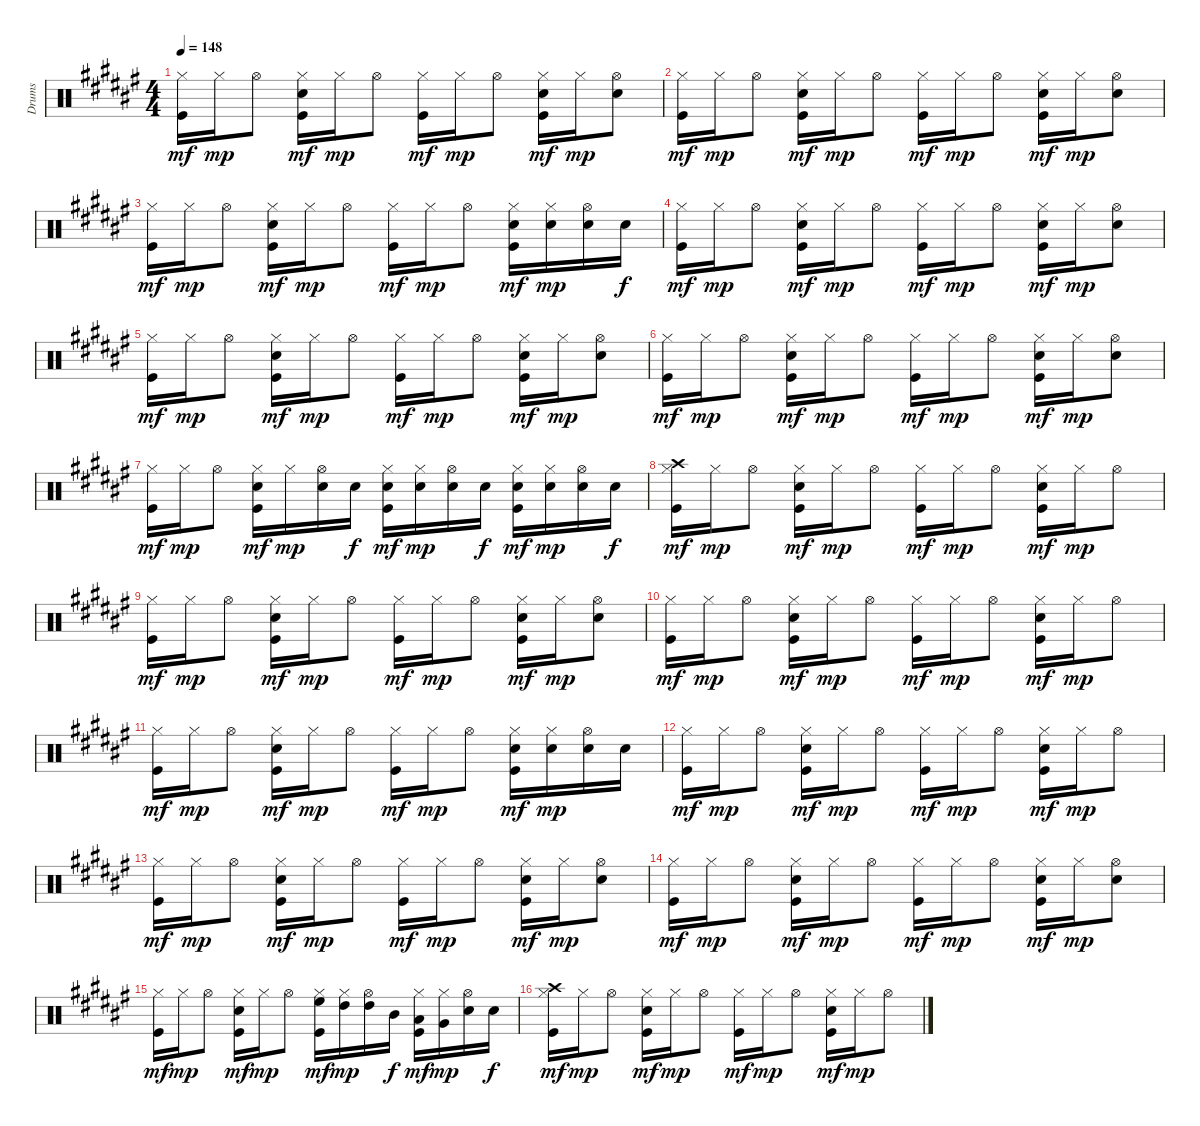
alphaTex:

\track ("Drums" "Drums") {instrument percussion}
\staff {score}
\articulation defaults
\ts (4 4)
\tempo 148
\clef neutral
\ks d#minor
("Kick (hit)" "Hi-Hat (closed)").16{dy mf} "Hi-Hat (closed)".16{dy mp} "Hi-Hat (open)".8 ("Electric Snare (hit)" "Kick (hit)" "Hi-Hat (closed)").16{dy mf} "Hi-Hat (closed)".16{dy mp} "Hi-Hat (open)".8 ("Kick (hit)" "Hi-Hat (closed)").16{dy mf} "Hi-Hat (closed)".16{dy mp} "Hi-Hat (open)".8 ("Electric Snare (hit)" "Kick (hit)" "Hi-Hat (closed)").16{dy mf} "Hi-Hat (closed)".16{dy mp} ("Snare (hit) 2" "Hi-Hat (open)").8 |
("Kick (hit)" "Hi-Hat (closed)").16{dy mf} "Hi-Hat (closed)".16{dy mp} "Hi-Hat (open)".8 ("Electric Snare (hit)" "Kick (hit)" "Hi-Hat (closed)").16{dy mf} "Hi-Hat (closed)".16{dy mp} "Hi-Hat (open)".8 ("Kick (hit)" "Hi-Hat (closed)").16{dy mf} "Hi-Hat (closed)".16{dy mp} "Hi-Hat (open)".8 ("Electric Snare (hit)" "Kick (hit)" "Hi-Hat (closed)").16{dy mf} "Hi-Hat (closed)".16{dy mp} ("Snare (hit) 2" "Hi-Hat (open)").8 |
("Kick (hit)" "Hi-Hat (closed)").16{dy mf} "Hi-Hat (closed)".16{dy mp} "Hi-Hat (open)".8 ("Electric Snare (hit)" "Kick (hit)" "Hi-Hat (closed)").16{dy mf} "Hi-Hat (closed)".16{dy mp} "Hi-Hat (open)".8 ("Kick (hit)" "Hi-Hat (closed)").16{dy mf} "Hi-Hat (closed)".16{dy mp} "Hi-Hat (open)".8 ("Snare (hit) 2" "Kick (hit)" "Hi-Hat (closed)").16{dy mf} ("Snare (hit) 2" "Hi-Hat (closed)").16{dy mp} ("Snare (hit) 2" "Hi-Hat (open)").16 "Snare (hit) 2".16{dy f} |
("Kick (hit)" "Hi-Hat (closed)").16{dy mf} "Hi-Hat (closed)".16{dy mp} "Hi-Hat (open)".8 ("Electric Snare (hit)" "Kick (hit)" "Hi-Hat (closed)").16{dy mf} "Hi-Hat (closed)".16{dy mp} "Hi-Hat (open)".8 ("Kick (hit)" "Hi-Hat (closed)").16{dy mf} "Hi-Hat (closed)".16{dy mp} "Hi-Hat (open)".8 ("Electric Snare (hit)" "Kick (hit)" "Hi-Hat (closed)").16{dy mf} "Hi-Hat (closed)".16{dy mp} ("Snare (hit) 2" "Hi-Hat (open)").8 |
("Kick (hit)" "Hi-Hat (closed)").16{dy mf} "Hi-Hat (closed)".16{dy mp} "Hi-Hat (open)".8 ("Electric Snare (hit)" "Kick (hit)" "Hi-Hat (closed)").16{dy mf} "Hi-Hat (closed)".16{dy mp} "Hi-Hat (open)".8 ("Kick (hit)" "Hi-Hat (closed)").16{dy mf} "Hi-Hat (closed)".16{dy mp} "Hi-Hat (open)".8 ("Electric Snare (hit)" "Kick (hit)" "Hi-Hat (closed)").16{dy mf} "Hi-Hat (closed)".16{dy mp} ("Snare (hit) 2" "Hi-Hat (open)").8 |
("Kick (hit)" "Hi-Hat (closed)").16{dy mf} "Hi-Hat (closed)".16{dy mp} "Hi-Hat (open)".8 ("Electric Snare (hit)" "Kick (hit)" "Hi-Hat (closed)").16{dy mf} "Hi-Hat (closed)".16{dy mp} "Hi-Hat (open)".8 ("Kick (hit)" "Hi-Hat (closed)").16{dy mf} "Hi-Hat (closed)".16{dy mp} "Hi-Hat (open)".8 ("Electric Snare (hit)" "Kick (hit)" "Hi-Hat (closed)").16{dy mf} "Hi-Hat (closed)".16{dy mp} ("Snare (hit) 2" "Hi-Hat (open)").8 |
("Kick (hit)" "Hi-Hat (closed)").16{dy mf} "Hi-Hat (closed)".16{dy mp} "Hi-Hat (open)".8 ("Electric Snare (hit)" "Kick (hit)" "Hi-Hat (closed)").16{dy mf} "Hi-Hat (closed)".16{dy mp} ("Snare (hit) 2" "Hi-Hat (open)").16 "Snare (hit) 2".16{dy f} ("Kick (hit)" "Hi-Hat (closed)" "Electric Snare (hit)").16{dy mf} ("Electric Snare (hit)" "Hi-Hat (closed)").16{dy mp} ("Snare (hit) 2" "Hi-Hat (open)").16 "Snare (hit) 2".16{dy f} ("Kick (hit)" "Hi-Hat (closed)" "Electric Snare (hit)").16{dy mf} ("Electric Snare (hit)" "Hi-Hat (closed)").16{dy mp} ("Snare (hit) 2" "Hi-Hat (open)").16 "Snare (hit) 2".16{dy f} |
("Crash high (hit)" "Kick (hit)" "Hi-Hat (closed)").16{dy mf} "Hi-Hat (closed)".16{dy mp} "Hi-Hat (open)".8 ("Electric Snare (hit)" "Kick (hit)" "Hi-Hat (closed)").16{dy mf} "Hi-Hat (closed)".16{dy mp} "Hi-Hat (open)".8 ("Kick (hit)" "Hi-Hat (closed)").16{dy mf} "Hi-Hat (closed)".16{dy mp} "Hi-Hat (open)".8 ("Electric Snare (hit)" "Kick (hit)" "Hi-Hat (closed)").16{dy mf} "Hi-Hat (closed)".16{dy mp} "Hi-Hat (open)".8 |
("Kick (hit)" "Hi-Hat (closed)").16{dy mf} "Hi-Hat (closed)".16{dy mp} "Hi-Hat (open)".8 ("Electric Snare (hit)" "Kick (hit)" "Hi-Hat (closed)").16{dy mf} "Hi-Hat (closed)".16{dy mp} "Hi-Hat (open)".8 ("Kick (hit)" "Hi-Hat (closed)").16{dy mf} "Hi-Hat (closed)".16{dy mp} "Hi-Hat (open)".8 ("Electric Snare (hit)" "Kick (hit)" "Hi-Hat (closed)").16{dy mf} "Hi-Hat (closed)".16{dy mp} ("Snare (hit) 2" "Hi-Hat (open)").8 |
("Kick (hit)" "Hi-Hat (closed)").16{dy mf} "Hi-Hat (closed)".16{dy mp} "Hi-Hat (open)".8 ("Electric Snare (hit)" "Kick (hit)" "Hi-Hat (closed)").16{dy mf} "Hi-Hat (closed)".16{dy mp} "Hi-Hat (open)".8 ("Kick (hit)" "Hi-Hat (closed)").16{dy mf} "Hi-Hat (closed)".16{dy mp} "Hi-Hat (open)".8 ("Electric Snare (hit)" "Kick (hit)" "Hi-Hat (closed)").16{dy mf} "Hi-Hat (closed)".16{dy mp} "Hi-Hat (open)".8 |
("Kick (hit)" "Hi-Hat (closed)").16{dy mf} "Hi-Hat (closed)".16{dy mp} "Hi-Hat (open)".8 ("Electric Snare (hit)" "Kick (hit)" "Hi-Hat (closed)").16{dy mf} "Hi-Hat (closed)".16{dy mp} "Hi-Hat (open)".8 ("Kick (hit)" "Hi-Hat (closed)").16{dy mf} "Hi-Hat (closed)".16{dy mp} "Hi-Hat (open)".8 ("Snare (hit) 2" "Kick (hit)" "Hi-Hat (closed)").16{dy mf} ("Snare (hit) 2" "Hi-Hat (closed)").16{dy mp} ("Snare (hit) 2" "Hi-Hat (open)").16 "Snare (hit) 2".16 |
("Kick (hit)" "Hi-Hat (closed)").16{dy mf} "Hi-Hat (closed)".16{dy mp} "Hi-Hat (open)".8 ("Electric Snare (hit)" "Kick (hit)" "Hi-Hat (closed)").16{dy mf} "Hi-Hat (closed)".16{dy mp} "Hi-Hat (open)".8 ("Kick (hit)" "Hi-Hat (closed)").16{dy mf} "Hi-Hat (closed)".16{dy mp} "Hi-Hat (open)".8 ("Electric Snare (hit)" "Kick (hit)" "Hi-Hat (closed)").16{dy mf} "Hi-Hat (closed)".16{dy mp} "Hi-Hat (open)".8 |
("Kick (hit)" "Hi-Hat (closed)").16{dy mf} "Hi-Hat (closed)".16{dy mp} "Hi-Hat (open)".8 ("Electric Snare (hit)" "Kick (hit)" "Hi-Hat (closed)").16{dy mf} "Hi-Hat (closed)".16{dy mp} "Hi-Hat (open)".8 ("Kick (hit)" "Hi-Hat (closed)").16{dy mf} "Hi-Hat (closed)".16{dy mp} "Hi-Hat (open)".8 ("Electric Snare (hit)" "Kick (hit)" "Hi-Hat (closed)").16{dy mf} "Hi-Hat (closed)".16{dy mp} ("Snare (hit) 2" "Hi-Hat (open)").8 |
("Kick (hit)" "Hi-Hat (closed)").16{dy mf} "Hi-Hat (closed)".16{dy mp} "Hi-Hat (open)".8 ("Electric Snare (hit)" "Kick (hit)" "Hi-Hat (closed)").16{dy mf} "Hi-Hat (closed)".16{dy mp} "Hi-Hat (open)".8 ("Kick (hit)" "Hi-Hat (closed)").16{dy mf} "Hi-Hat (closed)".16{dy mp} "Hi-Hat (open)".8 ("Electric Snare (hit)" "Kick (hit)" "Hi-Hat (closed)").16{dy mf} "Hi-Hat (closed)".16{dy mp} ("Snare (hit) 2" "Hi-Hat (open)").8 |
("Kick (hit)" "Hi-Hat (closed)").16{dy mf} "Hi-Hat (closed)".16{dy mp} "Hi-Hat (open)".8 ("Electric Snare (hit)" "Kick (hit)" "Hi-Hat (closed)").16{dy mf} "Hi-Hat (closed)".16{dy mp} "Hi-Hat (open)".8 ("High Floor Tom (hit)" "Kick (hit)" "Hi-Hat (closed)").16{dy mf} ("High Tom (hit)" "Hi-Hat (closed)").16{dy mp} ("High Tom (hit)" "Hi-Hat (open)").16 "Mid Tom (hit)".16{dy f} ("Kick (hit)" "Hi-Hat (closed)" "Low Tom (hit)").16{dy mf} ("Very Low Tom (hit)" "Hi-Hat (closed)").16{dy mp} ("Snare (hit) 2" "Hi-Hat (open)").16 "Snare (hit) 2".16{dy f} |
("Crash high (hit)" "Kick (hit)" "Hi-Hat (closed)").16{dy mf} "Hi-Hat (closed)".16{dy mp} "Hi-Hat (open)".8 ("Electric Snare (hit)" "Kick (hit)" "Hi-Hat (closed)").16{dy mf} "Hi-Hat (closed)".16{dy mp} "Hi-Hat (open)".8 ("Kick (hit)" "Hi-Hat (closed)").16{dy mf} "Hi-Hat (closed)".16{dy mp} "Hi-Hat (open)".8 ("Electric Snare (hit)" "Kick (hit)" "Hi-Hat (closed)").16{dy mf} "Hi-Hat (closed)".16{dy mp} "Hi-Hat (open)".8
